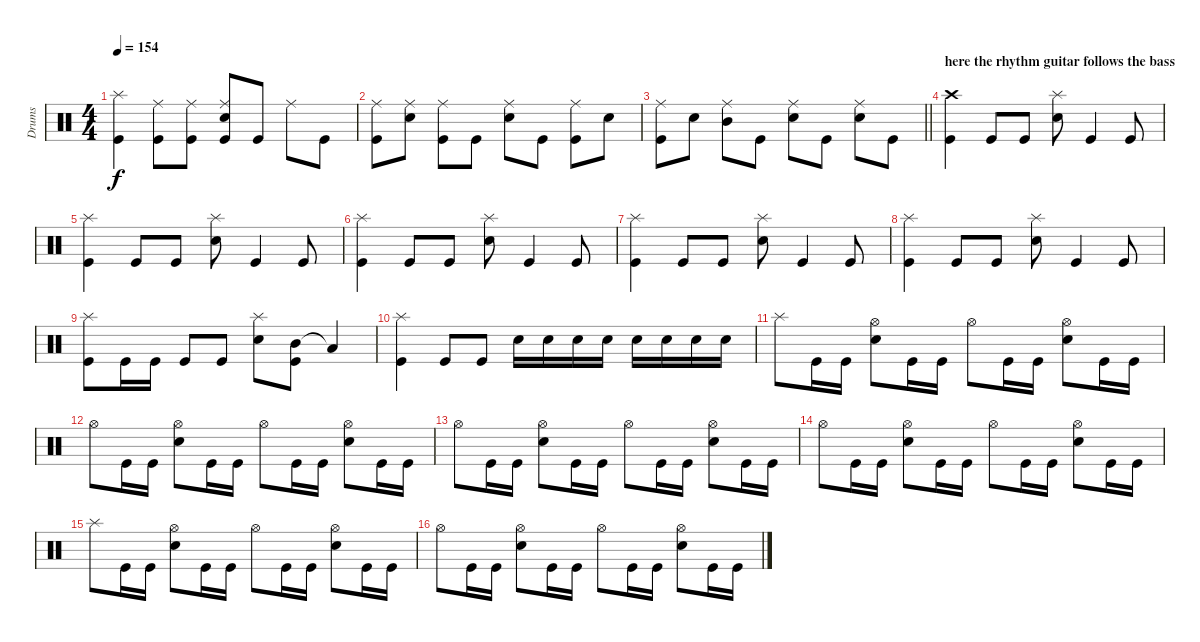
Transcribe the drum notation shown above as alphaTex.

\track ("Drums" "Drums") {instrument percussion}
\staff {score}
\articulation defaults
\ts (4 4)
\tempo 154
\clef neutral
\ks c
("Splash (hit)" "Kick (hit)").4{dy f} ("Ride (middle)" "Kick (hit)").8 ("Ride (middle)" "Kick (hit)").8 ("Ride (middle)" "Snare (hit) 2" "Kick (hit)").8 "Kick (hit)".8 "Ride (middle)".8 "Kick (hit)".8 |
("Ride (middle)" "Kick (hit)").8 ("Ride (middle)" "Snare (hit) 2").8 ("Ride (middle)" "Kick (hit)").8 "Kick (hit)".8 ("Ride (middle)" "Snare (hit) 2").8 "Kick (hit)".8 ("Ride (middle)" "Kick (hit)").8 "Snare (hit) 2".8 |
\barLineRight lightlight
("Ride (middle)" "Kick (hit)").8 "Snare (hit) 2".8 ("Ride (middle)" "Mid Tom (hit)").8 "Kick (hit)".8 ("Ride (middle)" "Snare (hit) 2").8 "Kick (hit)".8 ("Ride (middle)" "Snare (hit) 2").8 "Kick (hit)".8 |
\section ("" "here the rhythm guitar follows the bass")
("Crash high (hit)" "Kick (hit)").4 "Kick (hit)".8 "Kick (hit)".8 ("Splash (hit)" "Snare (hit) 2").8 "Kick (hit)".4 "Kick (hit)".8 |
("Splash (hit)" "Kick (hit)").4 "Kick (hit)".8 "Kick (hit)".8 ("Splash (hit)" "Snare (hit) 2").8 "Kick (hit)".4 "Kick (hit)".8 |
("Splash (hit)" "Kick (hit)").4 "Kick (hit)".8 "Kick (hit)".8 ("Splash (hit)" "Snare (hit) 2").8 "Kick (hit)".4 "Kick (hit)".8 |
("Splash (hit)" "Kick (hit)").4 "Kick (hit)".8 "Kick (hit)".8 ("Splash (hit)" "Snare (hit) 2").8 "Kick (hit)".4 "Kick (hit)".8 |
("Splash (hit)" "Kick (hit)").4 "Kick (hit)".8 "Kick (hit)".8 ("Splash (hit)" "Snare (hit) 2").8 "Kick (hit)".4 "Kick (hit)".8 |
("Splash (hit)" "Kick (hit)").8 "Kick (hit)".16 "Kick (hit)".16 "Kick (hit)".8 "Kick (hit)".8 ("Splash (hit)" "Snare (hit) 2").8 ("Mid Tom (hit)" "Kick (hit)").8 "Low Tom (hit)"{t}.4 |
("Splash (hit)" "Kick (hit)").4 "Kick (hit)".8 "Kick (hit)".8 "Snare (hit) 2".16 "Snare (hit) 2".16 "Snare (hit) 2".16 "Snare (hit) 2".16 "Snare (hit) 2".16 "Snare (hit) 2".16 "Snare (hit) 2".16 "Snare (hit) 2".16 |
"Splash (hit)".8 "Kick (hit)".16 "Kick (hit)".16 ("Hi-Hat (open)" "Snare (hit) 2").8 "Kick (hit)".16 "Kick (hit)".16 "Hi-Hat (open)".8 "Kick (hit)".16 "Kick (hit)".16 ("Hi-Hat (open)" "Snare (hit) 2").8 "Kick (hit)".16 "Kick (hit)".16 |
"Hi-Hat (open)".8 "Kick (hit)".16 "Kick (hit)".16 ("Hi-Hat (open)" "Snare (hit) 2").8 "Kick (hit)".16 "Kick (hit)".16 "Hi-Hat (open)".8 "Kick (hit)".16 "Kick (hit)".16 ("Hi-Hat (open)" "Snare (hit) 2").8 "Kick (hit)".16 "Kick (hit)".16 |
"Hi-Hat (open)".8 "Kick (hit)".16 "Kick (hit)".16 ("Hi-Hat (open)" "Snare (hit) 2").8 "Kick (hit)".16 "Kick (hit)".16 "Hi-Hat (open)".8 "Kick (hit)".16 "Kick (hit)".16 ("Hi-Hat (open)" "Snare (hit) 2").8 "Kick (hit)".16 "Kick (hit)".16 |
"Hi-Hat (open)".8 "Kick (hit)".16 "Kick (hit)".16 ("Hi-Hat (open)" "Snare (hit) 2").8 "Kick (hit)".16 "Kick (hit)".16 "Hi-Hat (open)".8 "Kick (hit)".16 "Kick (hit)".16 ("Hi-Hat (open)" "Snare (hit) 2").8 "Kick (hit)".16 "Kick (hit)".16 |
"Splash (hit)".8 "Kick (hit)".16 "Kick (hit)".16 ("Hi-Hat (open)" "Snare (hit) 2").8 "Kick (hit)".16 "Kick (hit)".16 "Hi-Hat (open)".8 "Kick (hit)".16 "Kick (hit)".16 ("Hi-Hat (open)" "Snare (hit) 2").8 "Kick (hit)".16 "Kick (hit)".16 |
"Hi-Hat (open)".8 "Kick (hit)".16 "Kick (hit)".16 ("Hi-Hat (open)" "Snare (hit) 2").8 "Kick (hit)".16 "Kick (hit)".16 "Hi-Hat (open)".8 "Kick (hit)".16 "Kick (hit)".16 ("Hi-Hat (open)" "Snare (hit) 2").8 "Kick (hit)".16 "Kick (hit)".16
